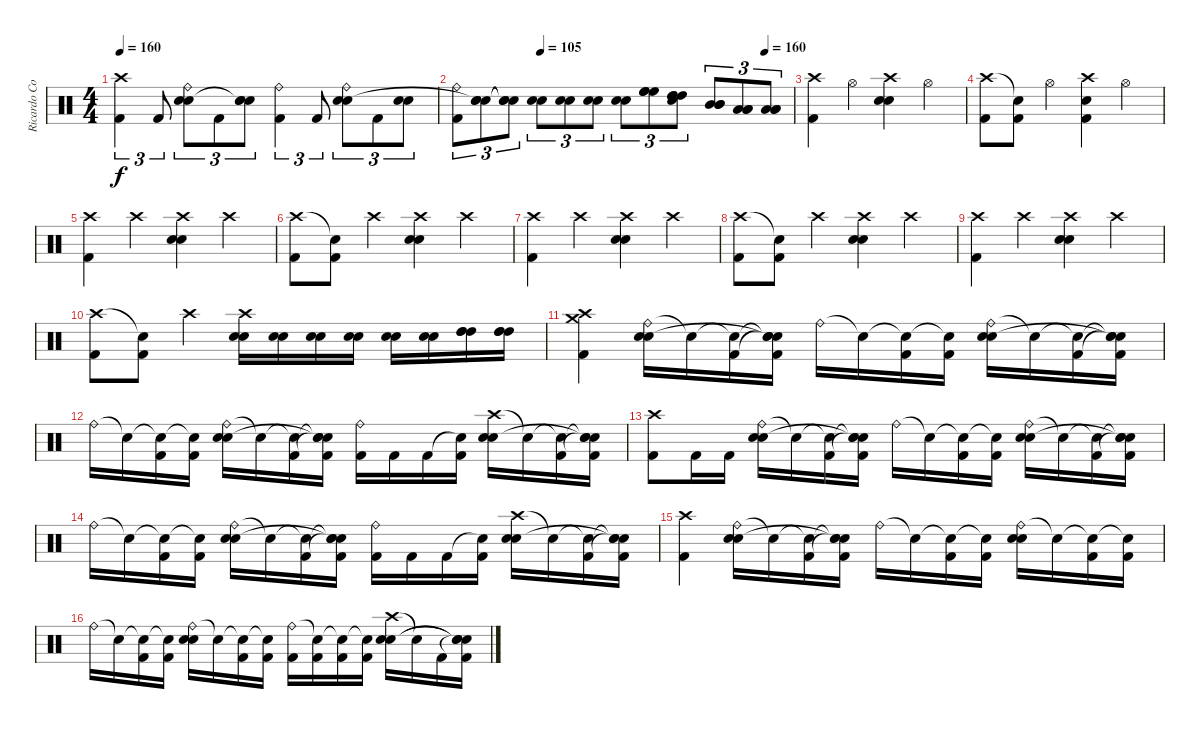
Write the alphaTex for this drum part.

\track ("Ricardo Confessori" "Ricardo Co") {instrument percussion}
\staff {score}
\articulation defaults
\ts (4 4)
\tempo 160
\clef neutral
\ks c
("Crash high (hit)" "Kick (hit) 2").4{tu (3 2) dy f} "Kick (hit) 2".8{tu (3 2)} ("Ride (bell)" "Electric Snare (hit)" "Snare (hit) 2").8{tu (3 2)} "Kick (hit) 2".8{tu (3 2)} ("Electric Snare (hit)" "Snare (hit) 2" "Snare (hit)"{t}).8{tu (3 2)} ("Ride (bell)" "Kick (hit) 2").4{tu (3 2)} "Kick (hit) 2".8{tu (3 2)} ("Ride (bell)" "Electric Snare (hit)" "Snare (hit) 2").8{tu (3 2)} "Kick (hit) 2".8{tu (3 2)} ("Electric Snare (hit)" "Snare (hit) 2").8{tu (3 2)} |
\tempo (105 0.25)
\tempo (160 0.9166666666666666)
("Ride (bell)" "Kick (hit) 2").8{tu (3 2)} ("Electric Snare (hit)" "Snare (hit) 2" "Snare (hit)"{t}).8{tu (3 2)} ("Snare (hit) 2"{t} "Snare (hit)"{t} "Snare (hit)"{t}).8{tu (3 2)} ("Electric Snare (hit)" "Snare (hit) 2").8{tu (3 2)} ("Electric Snare (hit)" "Snare (hit) 2").8{tu (3 2)} ("Electric Snare (hit)" "Snare (hit) 2").8{tu (3 2)} ("Electric Snare (hit)" "Snare (hit) 2").8{tu (3 2)} ("High Floor Tom (hit)" "High Floor Tom (hit)" "High Floor Tom (hit)").8{tu (3 2)} ("High Tom (hit)" "High Tom (hit)" "High Tom (hit)" "Snare (hit)").8{tu (3 2)} ("Mid Tom (hit)" "Mid Tom (hit)" "Mid Tom (hit)").8{tu (3 2)} ("Low Tom (hit)" "Low Tom (hit)" "Low Tom (hit)").8{tu (3 2)} ("Low Tom (hit)" "Low Tom (hit)" "Low Tom (hit)").8{tu (3 2)} |
("Crash high (hit)" "Kick (hit) 2").4 "Hi-Hat (open)".4 ("Crash high (hit)" "Electric Snare (hit)" "Snare (hit) 2").4 "Hi-Hat (open)".4 |
("Crash high (hit)" "Kick (hit) 2").8 ("Snare (hit)"{t} "Kick (hit) 2").8 "Hi-Hat (open)".4 ("Crash high (hit)" "Electric Snare (hit)" "Kick (hit) 2").4 "Hi-Hat (open)".4 |
("Crash high (hit)" "Kick (hit) 2").4 "Crash high (hit)".4 ("Crash high (hit)" "Electric Snare (hit)" "Snare (hit) 2").4 "Crash high (hit)".4 |
("Crash high (hit)" "Kick (hit) 2").8 ("Snare (hit)"{t} "Kick (hit) 2").8 "Crash high (hit)".4 ("Crash high (hit)" "Electric Snare (hit)" "Snare (hit) 2").4 "Crash high (hit)".4 |
("Crash high (hit)" "Kick (hit) 2").4 "Crash high (hit)".4 ("Crash high (hit)" "Electric Snare (hit)" "Snare (hit) 2").4 "Crash high (hit)".4 |
("Crash high (hit)" "Kick (hit) 2").8 ("Snare (hit)"{t} "Kick (hit) 2").8 "Crash high (hit)".4 ("Crash high (hit)" "Electric Snare (hit)" "Snare (hit) 2").4 "Crash high (hit)".4 |
("Crash high (hit)" "Kick (hit) 2").4 "Crash high (hit)".4 ("Crash high (hit)" "Electric Snare (hit)" "Snare (hit) 2").4 "Crash high (hit)".4 |
("Crash high (hit)" "Kick (hit) 2").8 ("Snare (hit)"{t} "Kick (hit) 2").8 "Crash high (hit)".4 ("Crash high (hit)" "Electric Snare (hit)" "Snare (hit) 2").16 ("Electric Snare (hit)" "Snare (hit) 2").16 ("Electric Snare (hit)" "Snare (hit) 2").16 ("Electric Snare (hit)" "Snare (hit) 2").16 ("Electric Snare (hit)" "Snare (hit) 2").16 ("Electric Snare (hit)" "Snare (hit) 2").16 ("High Tom (hit)" "High Tom (hit)" "High Tom (hit)").16 ("High Tom (hit)" "High Tom (hit)" "High Tom (hit)").16 |
("Crash high (hit)" "Crash medium (hit)" "Kick (hit) 2").4 ("Ride (bell)" "Electric Snare (hit)" "Snare (hit) 2").16 "Snare (hit)"{t}.16 ("Snare (hit)"{t} "Kick (hit) 2").16 ("Snare (hit)"{t} "Snare (hit)"{t} "Snare (hit)"{t} "Kick (hit) 2").16 "Ride (bell)".16 "Snare (hit)"{t}.16 ("Snare (hit)"{t} "Kick (hit) 2").16 ("Snare (hit)"{t} "Kick (hit) 2").16 ("Ride (bell)" "Electric Snare (hit)" "Snare (hit) 2").16 "Snare (hit)"{t}.16 ("Snare (hit)"{t} "Kick (hit) 2").16 ("Snare (hit)"{t} "Snare (hit)"{t} "Snare (hit)"{t} "Kick (hit) 2").16 |
"Ride (bell)".16 "Snare (hit)"{t}.16 ("Snare (hit)"{t} "Kick (hit) 2").16 ("Snare (hit)"{t} "Kick (hit) 2").16 ("Ride (bell)" "Electric Snare (hit)" "Snare (hit) 2").16 "Snare (hit)"{t}.16 ("Snare (hit)"{t} "Kick (hit) 2").16 ("Snare (hit)"{t} "Snare (hit)"{t} "Snare (hit)"{t} "Kick (hit) 2").16 ("Ride (bell)" "Kick (hit) 2").16 "Kick (hit) 2".16 "Kick (hit) 2".16 ("Snare (hit)"{t} "Kick (hit) 2").16 ("Crash high (hit)" "Electric Snare (hit)" "Snare (hit) 2").16 "Snare (hit)"{t}.16 ("Snare (hit)"{t} "Kick (hit) 2").16 ("Snare (hit)"{t} "Snare (hit)"{t} "Snare (hit)"{t} "Kick (hit) 2").16 |
("Crash high (hit)" "Kick (hit) 2").8 "Kick (hit) 2".16 "Kick (hit) 2".16 ("Ride (bell)" "Electric Snare (hit)" "Snare (hit) 2").16 "Snare (hit)"{t}.16 ("Snare (hit)"{t} "Kick (hit) 2").16 ("Snare (hit)"{t} "Snare (hit)"{t} "Snare (hit)"{t} "Kick (hit) 2").16 "Ride (bell)".16 "Snare (hit)"{t}.16 ("Snare (hit)"{t} "Kick (hit) 2").16 ("Snare (hit)"{t} "Kick (hit) 2").16 ("Ride (bell)" "Electric Snare (hit)" "Snare (hit) 2").16 "Snare (hit)"{t}.16 ("Snare (hit)"{t} "Kick (hit) 2").16 ("Snare (hit)"{t} "Snare (hit)"{t} "Snare (hit)"{t} "Kick (hit) 2").16 |
"Ride (bell)".16 "Snare (hit)"{t}.16 ("Snare (hit)"{t} "Kick (hit) 2").16 ("Snare (hit)"{t} "Kick (hit) 2").16 ("Ride (bell)" "Electric Snare (hit)" "Snare (hit) 2").16 "Snare (hit)"{t}.16 ("Snare (hit)"{t} "Kick (hit) 2").16 ("Snare (hit)"{t} "Snare (hit)"{t} "Snare (hit)"{t} "Kick (hit) 2").16 ("Ride (bell)" "Kick (hit) 2").16 "Kick (hit) 2".16 "Kick (hit) 2".16 ("Snare (hit)"{t} "Kick (hit) 2").16 ("Crash high (hit)" "Electric Snare (hit)" "Snare (hit) 2").16 "Snare (hit)"{t}.16 ("Snare (hit)"{t} "Kick (hit) 2").16 ("Snare (hit)"{t} "Snare (hit)"{t} "Snare (hit)"{t} "Kick (hit) 2").16 |
("Crash high (hit)" "Kick (hit) 2").4 ("Ride (bell)" "Electric Snare (hit)" "Snare (hit) 2").16 "Snare (hit)"{t}.16 ("Snare (hit)"{t} "Kick (hit) 2").16 ("Snare (hit)"{t} "Snare (hit)"{t} "Snare (hit)"{t} "Kick (hit) 2").16 "Ride (bell)".16 "Snare (hit)"{t}.16 ("Snare (hit)"{t} "Kick (hit) 2").16 ("Snare (hit)"{t} "Kick (hit) 2").16 ("Ride (bell)" "Electric Snare (hit)" "Snare (hit) 2").16 "Snare (hit)"{t}.16 ("Snare (hit)"{t} "Kick (hit) 2").16 ("Snare (hit)"{t} "Kick (hit) 2").16 |
"Ride (bell)".16 "Snare (hit)"{t}.16 ("Snare (hit)"{t} "Kick (hit) 2").16 ("Snare (hit)"{t} "Kick (hit) 2").16 ("Ride (bell)" "Electric Snare (hit)" "Snare (hit) 2").16 "Snare (hit)"{t}.16 ("Snare (hit)"{t} "Kick (hit) 2").16 ("Snare (hit)"{t} "Kick (hit) 2").16 ("Ride (bell)" "Kick (hit) 2").16 ("Snare (hit)"{t} "Kick (hit) 2").16 ("Snare (hit)"{t} "Kick (hit) 2").16 ("Snare (hit)"{t} "Kick (hit) 2").16 ("Crash high (hit)" "Electric Snare (hit)" "Snare (hit) 2").16 "Snare (hit)"{t}.16 "Kick (hit) 2".16 ("Snare (hit)"{t} "Snare (hit)"{t} "Snare (hit)"{t} "Kick (hit) 2").16
